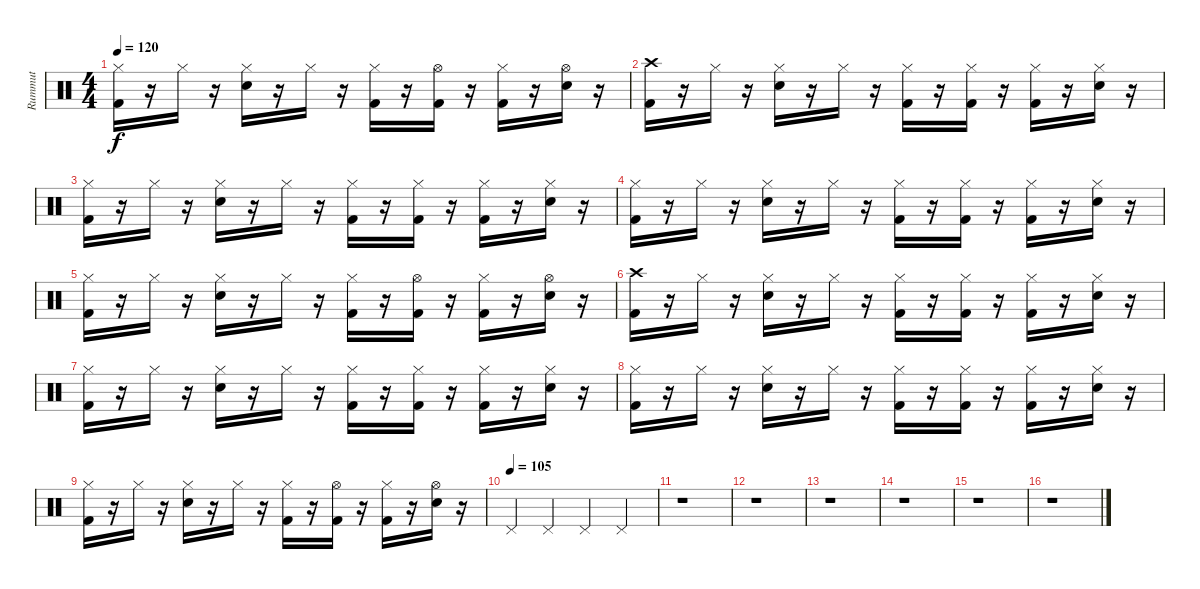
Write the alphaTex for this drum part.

\track ("Rummut" "Rummut") {instrument percussion}
\staff {score}
\articulation defaults
\ts (4 4)
\tempo 120
\clef neutral
\ks c
("Hi-Hat (closed)" "Kick (hit) 2").16{dy f} r.16 "Hi-Hat (closed)".16 r.16 ("Hi-Hat (closed)" "Snare (hit) 2").16 r.16 "Hi-Hat (closed)".16 r.16 ("Hi-Hat (closed)" "Kick (hit) 2").16 r.16 ("Hi-Hat (open)" "Kick (hit) 2").16 r.16 ("Hi-Hat (closed)" "Kick (hit) 2").16 r.16 ("Hi-Hat (open)" "Snare (hit) 2").16 r.16 |
("Crash high (hit)" "Kick (hit) 2").16 r.16 "Hi-Hat (closed)".16 r.16 ("Hi-Hat (closed)" "Snare (hit) 2").16 r.16 "Hi-Hat (closed)".16 r.16 ("Hi-Hat (closed)" "Kick (hit) 2").16 r.16 ("Hi-Hat (closed)" "Kick (hit) 2").16 r.16 ("Hi-Hat (closed)" "Kick (hit) 2").16 r.16 ("Hi-Hat (closed)" "Snare (hit) 2").16 r.16 |
("Hi-Hat (closed)" "Kick (hit) 2").16 r.16 "Hi-Hat (closed)".16 r.16 ("Hi-Hat (closed)" "Snare (hit) 2").16 r.16 "Hi-Hat (closed)".16 r.16 ("Hi-Hat (closed)" "Kick (hit) 2").16 r.16 ("Hi-Hat (closed)" "Kick (hit) 2").16 r.16 ("Hi-Hat (closed)" "Kick (hit) 2").16 r.16 ("Hi-Hat (closed)" "Snare (hit) 2").16 r.16 |
("Hi-Hat (closed)" "Kick (hit) 2").16 r.16 "Hi-Hat (closed)".16 r.16 ("Hi-Hat (closed)" "Snare (hit) 2").16 r.16 "Hi-Hat (closed)".16 r.16 ("Hi-Hat (closed)" "Kick (hit) 2").16 r.16 ("Hi-Hat (closed)" "Kick (hit) 2").16 r.16 ("Hi-Hat (closed)" "Kick (hit) 2").16 r.16 ("Hi-Hat (closed)" "Snare (hit) 2").16 r.16 |
("Hi-Hat (closed)" "Kick (hit) 2").16 r.16 "Hi-Hat (closed)".16 r.16 ("Hi-Hat (closed)" "Snare (hit) 2").16 r.16 "Hi-Hat (closed)".16 r.16 ("Hi-Hat (closed)" "Kick (hit) 2").16 r.16 ("Hi-Hat (open)" "Kick (hit) 2").16 r.16 ("Hi-Hat (closed)" "Kick (hit) 2").16 r.16 ("Hi-Hat (open)" "Snare (hit) 2").16 r.16 |
("Crash high (hit)" "Kick (hit) 2").16 r.16 "Hi-Hat (closed)".16 r.16 ("Hi-Hat (closed)" "Snare (hit) 2").16 r.16 "Hi-Hat (closed)".16 r.16 ("Hi-Hat (closed)" "Kick (hit) 2").16 r.16 ("Hi-Hat (closed)" "Kick (hit) 2").16 r.16 ("Hi-Hat (closed)" "Kick (hit) 2").16 r.16 ("Hi-Hat (closed)" "Snare (hit) 2").16 r.16 |
("Hi-Hat (closed)" "Kick (hit) 2").16 r.16 "Hi-Hat (closed)".16 r.16 ("Hi-Hat (closed)" "Snare (hit) 2").16 r.16 "Hi-Hat (closed)".16 r.16 ("Hi-Hat (closed)" "Kick (hit) 2").16 r.16 ("Hi-Hat (closed)" "Kick (hit) 2").16 r.16 ("Hi-Hat (closed)" "Kick (hit) 2").16 r.16 ("Hi-Hat (closed)" "Snare (hit) 2").16 r.16 |
("Hi-Hat (closed)" "Kick (hit) 2").16 r.16 "Hi-Hat (closed)".16 r.16 ("Hi-Hat (closed)" "Snare (hit) 2").16 r.16 "Hi-Hat (closed)".16 r.16 ("Hi-Hat (closed)" "Kick (hit) 2").16 r.16 ("Hi-Hat (closed)" "Kick (hit) 2").16 r.16 ("Hi-Hat (closed)" "Kick (hit) 2").16 r.16 ("Hi-Hat (closed)" "Snare (hit) 2").16 r.16 |
("Hi-Hat (closed)" "Kick (hit) 2").16 r.16 "Hi-Hat (closed)".16 r.16 ("Hi-Hat (closed)" "Snare (hit) 2").16 r.16 "Hi-Hat (closed)".16 r.16 ("Hi-Hat (closed)" "Kick (hit) 2").16 r.16 ("Hi-Hat (open)" "Kick (hit) 2").16 r.16 ("Hi-Hat (closed)" "Kick (hit) 2").16 r.16 ("Hi-Hat (open)" "Snare (hit) 2").16 r.16 |
\tempo (105)
"Pedal Hi-Hat (hit)".4 "Pedal Hi-Hat (hit)".4 "Pedal Hi-Hat (hit)".4 "Pedal Hi-Hat (hit)".4 |
r.1 |
r.1 |
r.1 |
r.1 |
r.1 |
r.1
